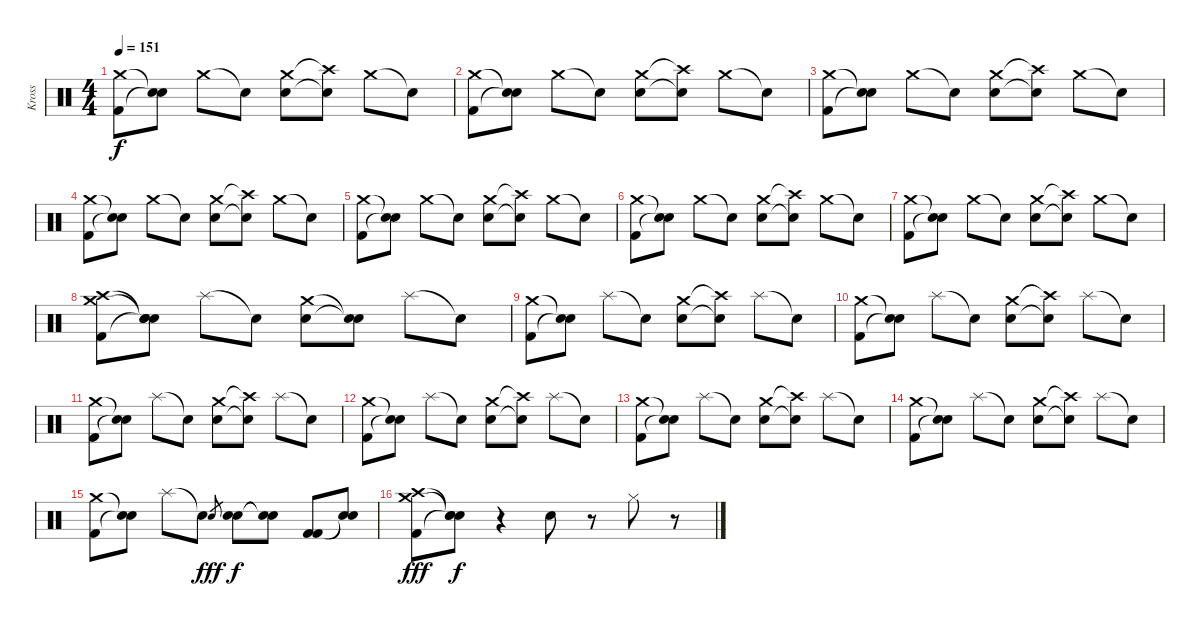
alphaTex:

\track ("Kross" "Kross") {instrument percussion}
\staff {score}
\articulation defaults
\ts (4 4)
\tempo 151
\clef neutral
\ks c
("Crash medium (hit)" "Kick (hit) 2").8{dy f} ("Snare (hit)"{t} "Snare (hit)"{t}).8 "Crash medium (hit)".8 "Snare (hit)"{t}.8 ("Crash medium (hit)" "Electric Snare (hit)").8 ("Crash high (hit)"{t} "Snare (hit)"{t}).8 "Crash medium (hit)".8 "Snare (hit)"{t}.8 |
("Crash medium (hit)" "Kick (hit) 2").8 ("Snare (hit)"{t} "Snare (hit)"{t}).8 "Crash medium (hit)".8 "Snare (hit)"{t}.8 ("Crash medium (hit)" "Electric Snare (hit)").8 ("Crash high (hit)"{t} "Snare (hit)"{t}).8 "Crash medium (hit)".8 "Snare (hit)"{t}.8 |
("Crash medium (hit)" "Kick (hit) 2").8 ("Snare (hit)"{t} "Snare (hit)"{t}).8 "Crash medium (hit)".8 "Snare (hit)"{t}.8 ("Crash medium (hit)" "Electric Snare (hit)").8 ("Crash high (hit)"{t} "Snare (hit)"{t}).8 "Crash medium (hit)".8 "Snare (hit)"{t}.8 |
("Crash medium (hit)" "Kick (hit) 2").8 ("Snare (hit)"{t} "Snare (hit)"{t}).8 "Crash medium (hit)".8 "Snare (hit)"{t}.8 ("Crash medium (hit)" "Electric Snare (hit)").8 ("Crash high (hit)"{t} "Snare (hit)"{t}).8 "Crash medium (hit)".8 "Snare (hit)"{t}.8 |
("Crash medium (hit)" "Kick (hit) 2").8 ("Snare (hit)"{t} "Snare (hit)"{t}).8 "Crash medium (hit)".8 "Snare (hit)"{t}.8 ("Crash medium (hit)" "Electric Snare (hit)").8 ("Crash high (hit)"{t} "Snare (hit)"{t}).8 "Crash medium (hit)".8 "Snare (hit)"{t}.8 |
("Crash medium (hit)" "Kick (hit) 2").8 ("Snare (hit)"{t} "Snare (hit)"{t}).8 "Crash medium (hit)".8 "Snare (hit)"{t}.8 ("Crash medium (hit)" "Electric Snare (hit)").8 ("Crash high (hit)"{t} "Snare (hit)"{t}).8 "Crash medium (hit)".8 "Snare (hit)"{t}.8 |
("Crash medium (hit)" "Kick (hit) 2").8 ("Snare (hit)"{t} "Snare (hit)"{t}).8 "Crash medium (hit)".8 "Snare (hit)"{t}.8 ("Crash medium (hit)" "Electric Snare (hit)").8 ("Crash high (hit)"{t} "Snare (hit)"{t}).8 "Crash medium (hit)".8 "Snare (hit)"{t}.8 |
("Crash medium (hit)" "Crash high (hit)" "Kick (hit) 2").8 ("Snare (hit)"{t} "Snare (hit)"{t} "Snare (hit)"{t}).8 "Splash (hit)".8 "Snare (hit)"{t}.8 ("Crash medium (hit)" "Electric Snare (hit)").8 ("Snare (hit)"{t} "Snare (hit)"{t}).8 "Splash (hit)".8 "Snare (hit)"{t}.8 |
("Crash medium (hit)" "Kick (hit) 2").8 ("Snare (hit)"{t} "Snare (hit)"{t}).8 "Splash (hit)".8 "Snare (hit)"{t}.8 ("Crash medium (hit)" "Electric Snare (hit)").8 ("Crash high (hit)"{t} "Snare (hit)"{t}).8 "Splash (hit)".8 "Snare (hit)"{t}.8 |
("Crash medium (hit)" "Kick (hit) 2").8 ("Snare (hit)"{t} "Snare (hit)"{t}).8 "Splash (hit)".8 "Snare (hit)"{t}.8 ("Crash medium (hit)" "Electric Snare (hit)").8 ("Crash high (hit)"{t} "Snare (hit)"{t}).8 "Splash (hit)".8 "Snare (hit)"{t}.8 |
("Crash medium (hit)" "Kick (hit) 2").8 ("Snare (hit)"{t} "Snare (hit)"{t}).8 "Splash (hit)".8 "Snare (hit)"{t}.8 ("Crash medium (hit)" "Electric Snare (hit)").8 ("Crash high (hit)"{t} "Snare (hit)"{t}).8 "Splash (hit)".8 "Snare (hit)"{t}.8 |
("Crash medium (hit)" "Kick (hit) 2").8 ("Snare (hit)"{t} "Snare (hit)"{t}).8 "Splash (hit)".8 "Snare (hit)"{t}.8 ("Crash medium (hit)" "Electric Snare (hit)").8 ("Crash high (hit)"{t} "Snare (hit)"{t}).8 "Splash (hit)".8 "Snare (hit)"{t}.8 |
("Crash medium (hit)" "Kick (hit) 2").8 ("Snare (hit)"{t} "Snare (hit)"{t}).8 "Splash (hit)".8 "Snare (hit)"{t}.8 ("Crash medium (hit)" "Electric Snare (hit)").8 ("Crash high (hit)"{t} "Snare (hit)"{t}).8 "Splash (hit)".8 "Snare (hit)"{t}.8 |
("Crash medium (hit)" "Kick (hit) 2").8 ("Snare (hit)"{t} "Snare (hit)"{t}).8 "Splash (hit)".8 "Snare (hit)"{t}.8 ("Crash medium (hit)" "Electric Snare (hit)").8 ("Crash high (hit)"{t} "Snare (hit)"{t}).8 "Splash (hit)".8 "Snare (hit)"{t}.8 |
("Crash medium (hit)" "Kick (hit) 2").8 ("Snare (hit)"{t} "Snare (hit)"{t}).8 "Splash (hit)".8 "Snare (hit)"{t}.8 "Electric Snare (hit)".8{gr dy fff} ("Electric Snare (hit)" "Electric Snare (hit)").8{dy f} ("Snare (hit)"{t} "Snare (hit)"{t}).8 ("Kick (hit) 2" "Kick (hit) 2").8 ("Snare (hit)"{t} "Snare (hit)"{t}).8 |
("Crash medium (hit)" "Crash high (hit)" "Kick (hit) 2").8{dy fff} ("Snare (hit)"{t} "Snare (hit)"{t} "Snare (hit)"{t}).8{dy f} r.4 "Electric Snare (hit)".8 r.8 "Hi-Hat (closed)".8 r.8
